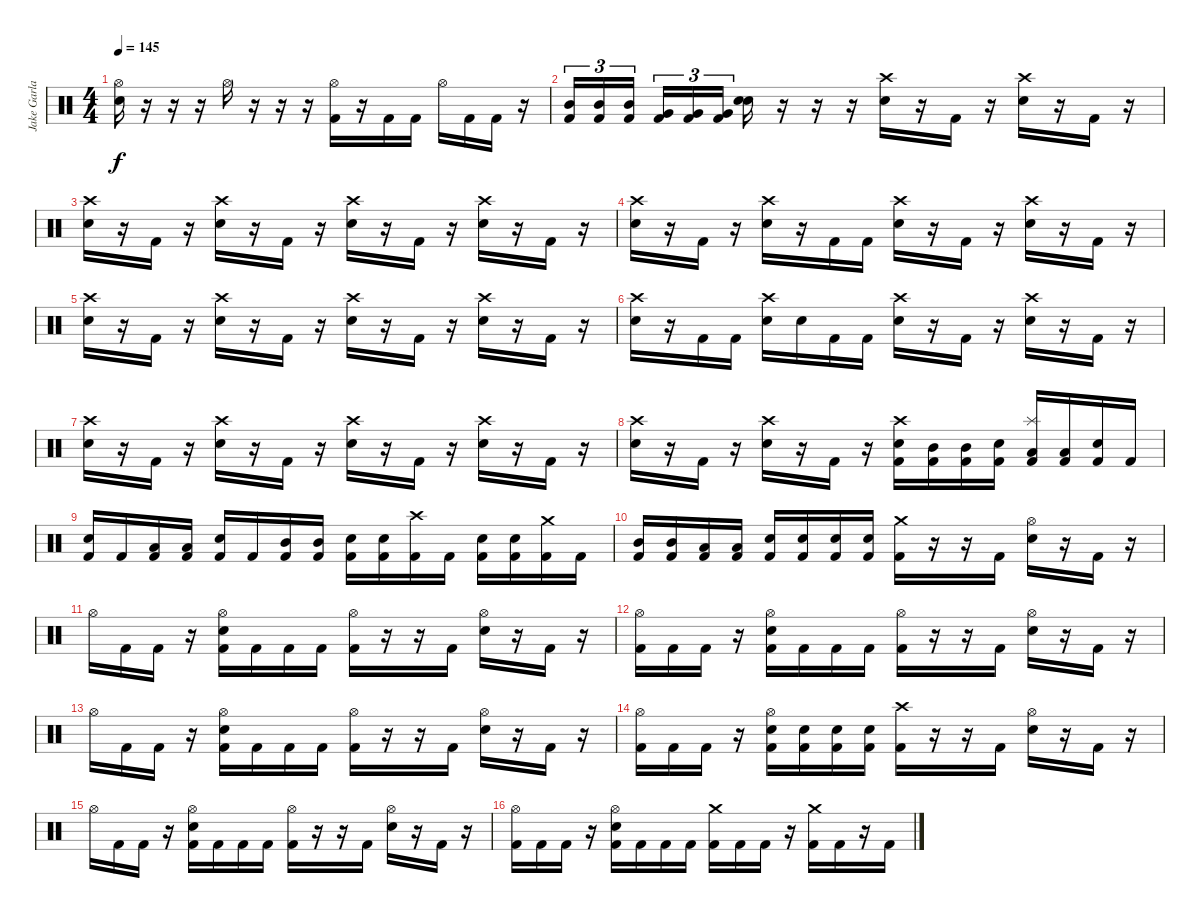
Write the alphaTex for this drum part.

\track ("Jake Garland" "Jake Garla") {instrument percussion}
\staff {score}
\articulation defaults
\ts (4 4)
\tempo 145
\clef neutral
\ks c
("Hi-Hat (open)" "Electric Snare (hit)").16{dy f} r.16 r.16 r.16 "Hi-Hat (open)".16 r.16 r.16 r.16 ("Hi-Hat (open)" "Kick (hit) 2").16 r.16 "Kick (hit) 2".16 "Kick (hit) 2".16 "Hi-Hat (open)".16 "Kick (hit) 2".16 "Kick (hit) 2".16 r.16 |
("Mid Tom (hit)" "Kick (hit) 2").16{tu (3 2)} ("Mid Tom (hit)" "Kick (hit) 2").16{tu (3 2)} ("Mid Tom (hit)" "Kick (hit) 2").16{tu (3 2) beam splitsecondary} ("Very Low Tom (hit)" "Kick (hit) 2").16{tu (3 2)} ("Very Low Tom (hit)" "Kick (hit) 2").16{tu (3 2)} ("Very Low Tom (hit)" "Kick (hit) 2").16{tu (3 2)} ("Electric Snare (hit)" "Electric Snare (hit)").16 r.16 r.16 r.16 ("Crash high (hit)" "Electric Snare (hit)").16 r.16 "Kick (hit) 2".16 r.16 ("Crash high (hit)" "Electric Snare (hit)").16 r.16 "Kick (hit) 2".16 r.16 |
("Crash high (hit)" "Electric Snare (hit)").16 r.16 "Kick (hit) 2".16 r.16 ("Crash high (hit)" "Electric Snare (hit)").16 r.16 "Kick (hit) 2".16 r.16 ("Crash high (hit)" "Electric Snare (hit)").16 r.16 "Kick (hit) 2".16 r.16 ("Crash high (hit)" "Electric Snare (hit)").16 r.16 "Kick (hit) 2".16 r.16 |
("Crash high (hit)" "Electric Snare (hit)").16 r.16 "Kick (hit) 2".16 r.16 ("Crash high (hit)" "Electric Snare (hit)").16 r.16 "Kick (hit) 2".16 "Kick (hit) 2".16 ("Crash high (hit)" "Electric Snare (hit)").16 r.16 "Kick (hit) 2".16 r.16 ("Crash high (hit)" "Electric Snare (hit)").16 r.16 "Kick (hit) 2".16 r.16 |
("Crash high (hit)" "Electric Snare (hit)").16 r.16 "Kick (hit) 2".16 r.16 ("Crash high (hit)" "Electric Snare (hit)").16 r.16 "Kick (hit) 2".16 r.16 ("Crash high (hit)" "Electric Snare (hit)").16 r.16 "Kick (hit) 2".16 r.16 ("Crash high (hit)" "Electric Snare (hit)").16 r.16 "Kick (hit) 2".16 r.16 |
("Crash high (hit)" "Electric Snare (hit)").16 r.16 "Kick (hit) 2".16 "Kick (hit) 2".16 ("Crash high (hit)" "Electric Snare (hit)").16 "Electric Snare (hit)".16 "Kick (hit) 2".16 "Kick (hit) 2".16 ("Crash high (hit)" "Electric Snare (hit)").16 r.16 "Kick (hit) 2".16 r.16 ("Crash high (hit)" "Electric Snare (hit)").16 r.16 "Kick (hit) 2".16 r.16 |
("Crash high (hit)" "Electric Snare (hit)").16 r.16 "Kick (hit) 2".16 r.16 ("Crash high (hit)" "Electric Snare (hit)").16 r.16 "Kick (hit) 2".16 r.16 ("Crash high (hit)" "Electric Snare (hit)").16 r.16 "Kick (hit) 2".16 r.16 ("Crash high (hit)" "Electric Snare (hit)").16 r.16 "Kick (hit) 2".16 r.16 |
("Crash high (hit)" "Electric Snare (hit)").16 r.16 "Kick (hit) 2".16 r.16 ("Crash high (hit)" "Electric Snare (hit)").16 r.16 "Kick (hit) 2".16 r.16 ("Crash high (hit)" "Electric Snare (hit)" "Kick (hit) 2").16 ("Mid Tom (hit)" "Kick (hit) 2").16 ("Mid Tom (hit)" "Kick (hit) 2").16 ("Electric Snare (hit)" "Kick (hit) 2").16 ("Splash (hit)" "Low Tom (hit)" "Kick (hit) 2").16 ("Low Tom (hit)" "Kick (hit) 2").16 ("Electric Snare (hit)" "Kick (hit) 2").16 "Kick (hit) 2".16 |
("Electric Snare (hit)" "Kick (hit) 2").16 "Kick (hit) 2".16 ("Low Tom (hit)" "Kick (hit) 2").16 ("Low Tom (hit)" "Kick (hit) 2").16 ("Electric Snare (hit)" "Kick (hit) 2").16 "Kick (hit) 2".16 ("Mid Tom (hit)" "Kick (hit) 2").16 ("Mid Tom (hit)" "Kick (hit) 2").16 ("Electric Snare (hit)" "Kick (hit) 2").16 ("Electric Snare (hit)" "Kick (hit) 2").16 ("Crash high (hit)" "Kick (hit) 2").16 "Kick (hit) 2".16 ("Electric Snare (hit)" "Kick (hit) 2").16 ("Electric Snare (hit)" "Kick (hit) 2").16 ("Crash medium (hit)" "Kick (hit) 2").16 "Kick (hit) 2".16 |
("Mid Tom (hit)" "Kick (hit) 2").16 ("Mid Tom (hit)" "Kick (hit) 2").16 ("Low Tom (hit)" "Kick (hit) 2").16 ("Low Tom (hit)" "Kick (hit) 2").16 ("Electric Snare (hit)" "Kick (hit) 2").16 ("Electric Snare (hit)" "Kick (hit) 2").16 ("Electric Snare (hit)" "Kick (hit) 2").16 ("Electric Snare (hit)" "Kick (hit) 2").16 ("Crash medium (hit)" "Kick (hit) 2").16 r.16 r.16 "Kick (hit) 2".16 ("Hi-Hat (open)" "Electric Snare (hit)").16 r.16 "Kick (hit) 2".16 r.16 |
"Hi-Hat (open)".16 "Kick (hit) 2".16 "Kick (hit) 2".16 r.16 ("Hi-Hat (open)" "Electric Snare (hit)" "Kick (hit) 2").16 "Kick (hit) 2".16 "Kick (hit) 2".16 "Kick (hit) 2".16 ("Hi-Hat (open)" "Kick (hit) 2").16 r.16 r.16 "Kick (hit) 2".16 ("Hi-Hat (open)" "Electric Snare (hit)").16 r.16 "Kick (hit) 2".16 r.16 |
("Hi-Hat (open)" "Kick (hit) 2").16 "Kick (hit) 2".16 "Kick (hit) 2".16 r.16 ("Hi-Hat (open)" "Electric Snare (hit)" "Kick (hit) 2").16 "Kick (hit) 2".16 "Kick (hit) 2".16 "Kick (hit) 2".16 ("Hi-Hat (open)" "Kick (hit) 2").16 r.16 r.16 "Kick (hit) 2".16 ("Hi-Hat (open)" "Electric Snare (hit)").16 r.16 "Kick (hit) 2".16 r.16 |
"Hi-Hat (open)".16 "Kick (hit) 2".16 "Kick (hit) 2".16 r.16 ("Hi-Hat (open)" "Electric Snare (hit)" "Kick (hit) 2").16 "Kick (hit) 2".16 "Kick (hit) 2".16 "Kick (hit) 2".16 ("Hi-Hat (open)" "Kick (hit) 2").16 r.16 r.16 "Kick (hit) 2".16 ("Hi-Hat (open)" "Electric Snare (hit)").16 r.16 "Kick (hit) 2".16 r.16 |
("Hi-Hat (open)" "Kick (hit) 2").16 "Kick (hit) 2".16 "Kick (hit) 2".16 r.16 ("Hi-Hat (open)" "Electric Snare (hit)" "Kick (hit) 2").16 ("Electric Snare (hit)" "Kick (hit) 2").16 ("Electric Snare (hit)" "Kick (hit) 2").16 ("Electric Snare (hit)" "Kick (hit) 2").16 ("Crash high (hit)" "Kick (hit) 2").16 r.16 r.16 "Kick (hit) 2".16 ("Hi-Hat (open)" "Electric Snare (hit)").16 r.16 "Kick (hit) 2".16 r.16 |
"Hi-Hat (open)".16 "Kick (hit) 2".16 "Kick (hit) 2".16 r.16 ("Hi-Hat (open)" "Electric Snare (hit)" "Kick (hit) 2").16 "Kick (hit) 2".16 "Kick (hit) 2".16 "Kick (hit) 2".16 ("Hi-Hat (open)" "Kick (hit) 2").16 r.16 r.16 "Kick (hit) 2".16 ("Hi-Hat (open)" "Electric Snare (hit)").16 r.16 "Kick (hit) 2".16 r.16 |
("Hi-Hat (open)" "Kick (hit) 2").16 "Kick (hit) 2".16 "Kick (hit) 2".16 r.16 ("Hi-Hat (open)" "Electric Snare (hit)" "Kick (hit) 2").16 "Kick (hit) 2".16 "Kick (hit) 2".16 "Kick (hit) 2".16 ("Crash medium (hit)" "Kick (hit) 2").16 "Kick (hit) 2".16 "Kick (hit) 2".16 r.16 ("Crash medium (hit)" "Kick (hit) 2").16 "Kick (hit) 2".16 r.16 "Kick (hit) 2".16
